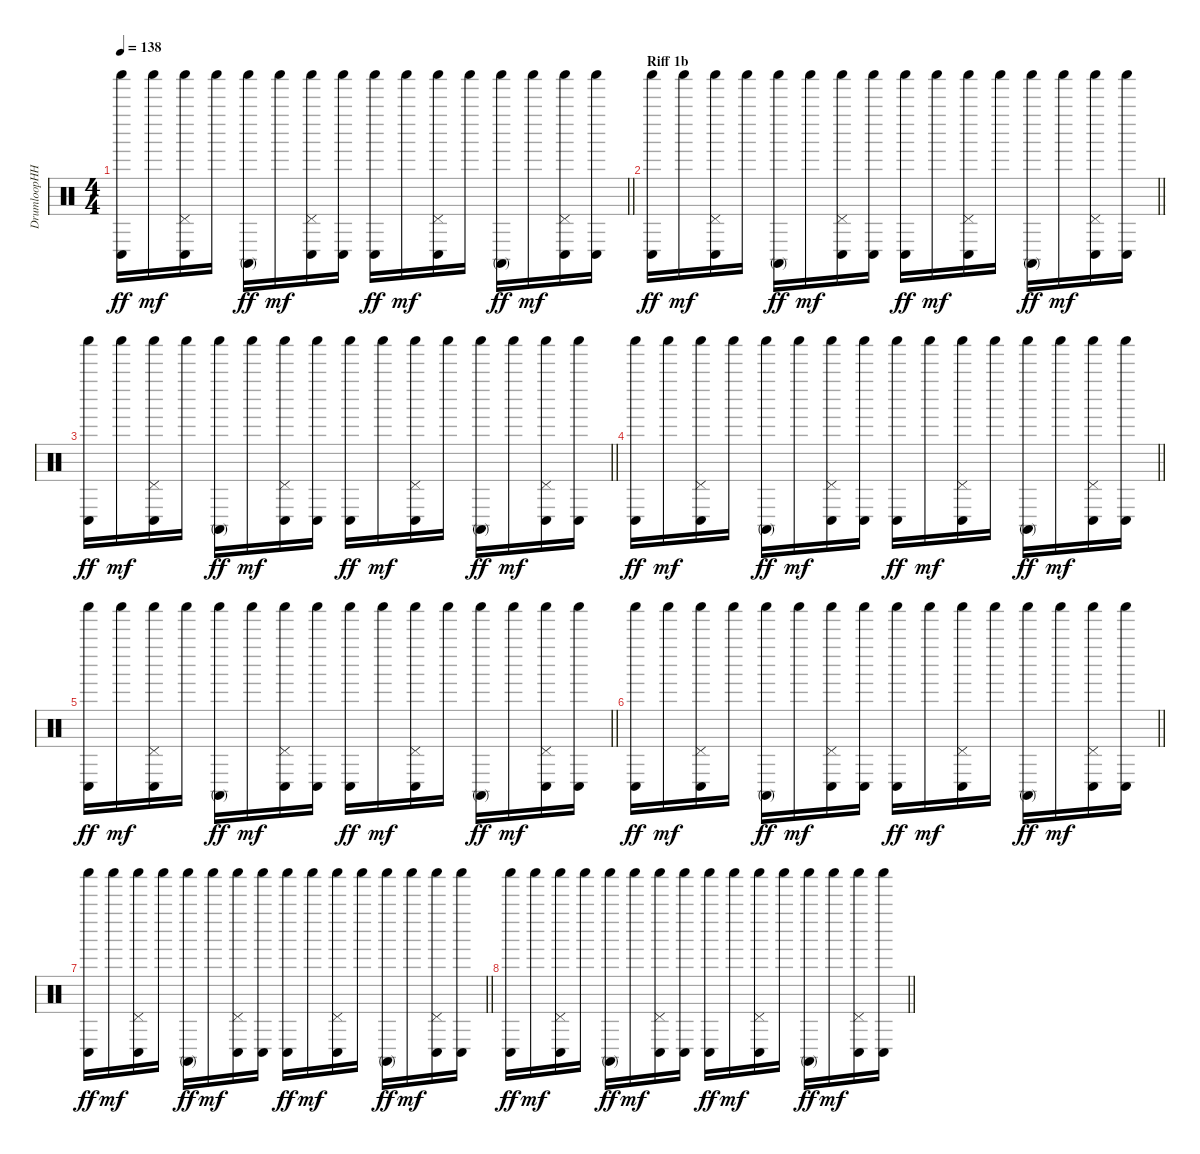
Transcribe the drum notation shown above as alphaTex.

\track ("DrumloopHH" "DrumloopHH") {instrument percussion}
\staff {score}
\articulation defaults
\ts (4 4)
\tempo 138
\clef neutral
\barLineRight lightlight
\ks c
("Conga low (hit)" "Shaker (hit)").16{dy ff} "Shaker (hit)".16{dy mf} ("Conga low (hit)" "Pedal Hi-Hat (hit)" "Shaker (hit)").16 "Shaker (hit)".16 ("Conga high (mute)" "Shaker (hit)").16{dy ff} "Shaker (hit)".16{dy mf} ("Conga low (hit)" "Pedal Hi-Hat (hit)" "Shaker (hit)").16 ("Conga low (hit)" "Shaker (hit)").16 ("Conga low (hit)" "Shaker (hit)").16{dy ff} "Shaker (hit)".16{dy mf} ("Conga low (hit)" "Pedal Hi-Hat (hit)" "Shaker (hit)").16 "Shaker (hit)".16 ("Conga high (mute)" "Shaker (hit)").16{dy ff} "Shaker (hit)".16{dy mf} ("Conga low (hit)" "Pedal Hi-Hat (hit)" "Shaker (hit)").16 ("Conga low (hit)" "Shaker (hit)").16 |
\section ("" "Riff 1b")
\barLineRight lightlight
("Conga low (hit)" "Shaker (hit)").16{dy ff} "Shaker (hit)".16{dy mf} ("Conga low (hit)" "Pedal Hi-Hat (hit)" "Shaker (hit)").16 "Shaker (hit)".16 ("Conga high (mute)" "Shaker (hit)").16{dy ff} "Shaker (hit)".16{dy mf} ("Conga low (hit)" "Pedal Hi-Hat (hit)" "Shaker (hit)").16 ("Conga low (hit)" "Shaker (hit)").16 ("Conga low (hit)" "Shaker (hit)").16{dy ff} "Shaker (hit)".16{dy mf} ("Conga low (hit)" "Pedal Hi-Hat (hit)" "Shaker (hit)").16 "Shaker (hit)".16 ("Conga high (mute)" "Shaker (hit)").16{dy ff} "Shaker (hit)".16{dy mf} ("Conga low (hit)" "Pedal Hi-Hat (hit)" "Shaker (hit)").16 ("Conga low (hit)" "Shaker (hit)").16 |
\barLineRight lightlight
("Conga low (hit)" "Shaker (hit)").16{dy ff} "Shaker (hit)".16{dy mf} ("Conga low (hit)" "Pedal Hi-Hat (hit)" "Shaker (hit)").16 "Shaker (hit)".16 ("Conga high (mute)" "Shaker (hit)").16{dy ff} "Shaker (hit)".16{dy mf} ("Conga low (hit)" "Pedal Hi-Hat (hit)" "Shaker (hit)").16 ("Conga low (hit)" "Shaker (hit)").16 ("Conga low (hit)" "Shaker (hit)").16{dy ff} "Shaker (hit)".16{dy mf} ("Conga low (hit)" "Pedal Hi-Hat (hit)" "Shaker (hit)").16 "Shaker (hit)".16 ("Conga high (mute)" "Shaker (hit)").16{dy ff} "Shaker (hit)".16{dy mf} ("Conga low (hit)" "Pedal Hi-Hat (hit)" "Shaker (hit)").16 ("Conga low (hit)" "Shaker (hit)").16 |
\barLineRight lightlight
("Conga low (hit)" "Shaker (hit)").16{dy ff} "Shaker (hit)".16{dy mf} ("Conga low (hit)" "Pedal Hi-Hat (hit)" "Shaker (hit)").16 "Shaker (hit)".16 ("Conga high (mute)" "Shaker (hit)").16{dy ff} "Shaker (hit)".16{dy mf} ("Conga low (hit)" "Pedal Hi-Hat (hit)" "Shaker (hit)").16 ("Conga low (hit)" "Shaker (hit)").16 ("Conga low (hit)" "Shaker (hit)").16{dy ff} "Shaker (hit)".16{dy mf} ("Conga low (hit)" "Pedal Hi-Hat (hit)" "Shaker (hit)").16 "Shaker (hit)".16 ("Conga high (mute)" "Shaker (hit)").16{dy ff} "Shaker (hit)".16{dy mf} ("Conga low (hit)" "Pedal Hi-Hat (hit)" "Shaker (hit)").16 ("Conga low (hit)" "Shaker (hit)").16 |
\barLineRight lightlight
("Conga low (hit)" "Shaker (hit)").16{dy ff} "Shaker (hit)".16{dy mf} ("Conga low (hit)" "Pedal Hi-Hat (hit)" "Shaker (hit)").16 "Shaker (hit)".16 ("Conga high (mute)" "Shaker (hit)").16{dy ff} "Shaker (hit)".16{dy mf} ("Conga low (hit)" "Pedal Hi-Hat (hit)" "Shaker (hit)").16 ("Conga low (hit)" "Shaker (hit)").16 ("Conga low (hit)" "Shaker (hit)").16{dy ff} "Shaker (hit)".16{dy mf} ("Conga low (hit)" "Pedal Hi-Hat (hit)" "Shaker (hit)").16 "Shaker (hit)".16 ("Conga high (mute)" "Shaker (hit)").16{dy ff} "Shaker (hit)".16{dy mf} ("Conga low (hit)" "Pedal Hi-Hat (hit)" "Shaker (hit)").16 ("Conga low (hit)" "Shaker (hit)").16 |
\barLineRight lightlight
("Conga low (hit)" "Shaker (hit)").16{dy ff} "Shaker (hit)".16{dy mf} ("Conga low (hit)" "Pedal Hi-Hat (hit)" "Shaker (hit)").16 "Shaker (hit)".16 ("Conga high (mute)" "Shaker (hit)").16{dy ff} "Shaker (hit)".16{dy mf} ("Conga low (hit)" "Pedal Hi-Hat (hit)" "Shaker (hit)").16 ("Conga low (hit)" "Shaker (hit)").16 ("Conga low (hit)" "Shaker (hit)").16{dy ff} "Shaker (hit)".16{dy mf} ("Conga low (hit)" "Pedal Hi-Hat (hit)" "Shaker (hit)").16 "Shaker (hit)".16 ("Conga high (mute)" "Shaker (hit)").16{dy ff} "Shaker (hit)".16{dy mf} ("Conga low (hit)" "Pedal Hi-Hat (hit)" "Shaker (hit)").16 ("Conga low (hit)" "Shaker (hit)").16 |
\barLineRight lightlight
("Conga low (hit)" "Shaker (hit)").16{dy ff} "Shaker (hit)".16{dy mf} ("Conga low (hit)" "Pedal Hi-Hat (hit)" "Shaker (hit)").16 "Shaker (hit)".16 ("Conga high (mute)" "Shaker (hit)").16{dy ff} "Shaker (hit)".16{dy mf} ("Conga low (hit)" "Pedal Hi-Hat (hit)" "Shaker (hit)").16 ("Conga low (hit)" "Shaker (hit)").16 ("Conga low (hit)" "Shaker (hit)").16{dy ff} "Shaker (hit)".16{dy mf} ("Conga low (hit)" "Pedal Hi-Hat (hit)" "Shaker (hit)").16 "Shaker (hit)".16 ("Conga high (mute)" "Shaker (hit)").16{dy ff} "Shaker (hit)".16{dy mf} ("Conga low (hit)" "Pedal Hi-Hat (hit)" "Shaker (hit)").16 ("Conga low (hit)" "Shaker (hit)").16 |
\barLineRight lightlight
("Conga low (hit)" "Shaker (hit)").16{dy ff} "Shaker (hit)".16{dy mf} ("Conga low (hit)" "Pedal Hi-Hat (hit)" "Shaker (hit)").16 "Shaker (hit)".16 ("Conga high (mute)" "Shaker (hit)").16{dy ff} "Shaker (hit)".16{dy mf} ("Conga low (hit)" "Pedal Hi-Hat (hit)" "Shaker (hit)").16 ("Conga low (hit)" "Shaker (hit)").16 ("Conga low (hit)" "Shaker (hit)").16{dy ff} "Shaker (hit)".16{dy mf} ("Conga low (hit)" "Pedal Hi-Hat (hit)" "Shaker (hit)").16 "Shaker (hit)".16 ("Conga high (mute)" "Shaker (hit)").16{dy ff} "Shaker (hit)".16{dy mf} ("Conga low (hit)" "Pedal Hi-Hat (hit)" "Shaker (hit)").16 ("Conga low (hit)" "Shaker (hit)").16
